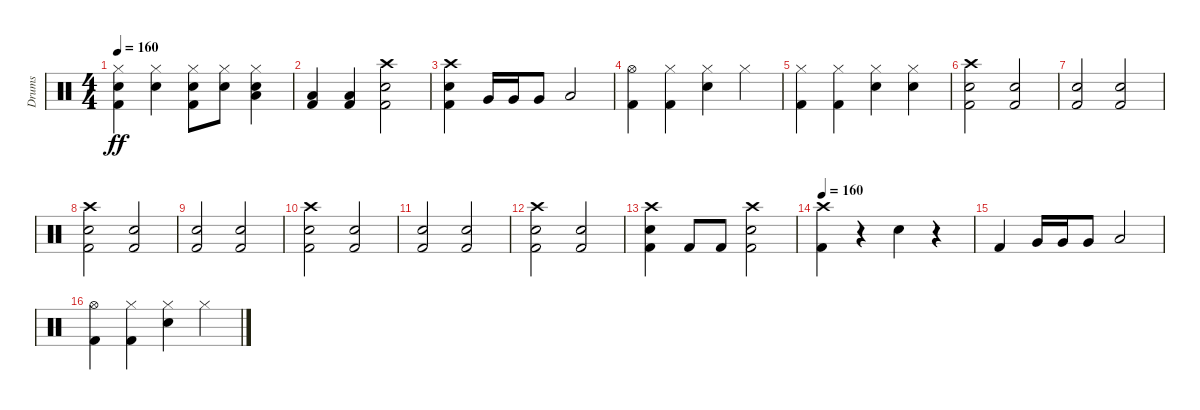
\track ("Drums" "Drums") {instrument percussion}
\staff {score}
\articulation defaults
\ts (4 4)
\tempo 160
\clef neutral
\ks c
("Hi-Hat (closed)" "Snare (hit) 2" "Kick (hit) 2").4{dy ff} ("Hi-Hat (closed)" "Snare (hit) 2").4 ("Hi-Hat (closed)" "Snare (hit) 2" "Kick (hit) 2").8 ("Hi-Hat (closed)" "Snare (hit) 2").8 ("Hi-Hat (closed)" "Snare (hit) 2" "Low Floor Tom (hit)").4 |
("Low Floor Tom (hit)" "Kick (hit) 2").4 ("Low Floor Tom (hit)" "Kick (hit) 2").4 ("Kick (hit) 2" "Crash high (hit)" "Snare (hit) 2").2 |
("Kick (hit) 2" "Crash high (hit)" "Snare (hit) 2").4 "Very Low Tom (hit)".16 "Very Low Tom (hit)".16 "Very Low Tom (hit)".8 "Low Floor Tom (hit)".2 |
("Hi-Hat (open)" "Kick (hit) 2").4 ("Hi-Hat (closed)" "Kick (hit) 2").4 ("Hi-Hat (closed)" "Snare (hit) 2").4 "Hi-Hat (closed)".4 |
("Hi-Hat (closed)" "Kick (hit) 2").4 ("Hi-Hat (closed)" "Kick (hit) 2").4 ("Hi-Hat (closed)" "Snare (hit) 2").4 ("Hi-Hat (closed)" "Snare (hit) 2").4 |
("Snare (hit) 2" "Crash high (hit)" "Kick (hit) 2").2 ("Snare (hit) 2" "Kick (hit) 2").2 |
("Kick (hit) 2" "Snare (hit) 2").2 ("Kick (hit) 2" "Snare (hit) 2").2 |
("Snare (hit) 2" "Crash high (hit)" "Kick (hit) 2").2 ("Snare (hit) 2" "Kick (hit) 2").2 |
("Kick (hit) 2" "Snare (hit) 2").2 ("Kick (hit) 2" "Snare (hit) 2").2 |
("Snare (hit) 2" "Crash high (hit)" "Kick (hit) 2").2 ("Snare (hit) 2" "Kick (hit) 2").2 |
("Kick (hit) 2" "Snare (hit) 2").2 ("Kick (hit) 2" "Snare (hit) 2").2 |
("Snare (hit) 2" "Crash high (hit)" "Kick (hit) 2").2 ("Snare (hit) 2" "Kick (hit) 2").2 |
("Snare (hit) 2" "Crash high (hit)" "Kick (hit) 2").4 "Kick (hit) 2".8 "Kick (hit) 2".8 ("Crash high (hit)" "Snare (hit) 2" "Kick (hit) 2").2 |
\tempo 160
("Crash high (hit)" "Kick (hit) 2").4 r.4 "Snare (hit) 2".4 r.4 |
"Kick (hit) 2".4 "Very Low Tom (hit)".16 "Very Low Tom (hit)".16 "Very Low Tom (hit)".8 "Low Floor Tom (hit)".2 |
("Hi-Hat (open)" "Kick (hit) 2").4 ("Hi-Hat (closed)" "Kick (hit) 2").4 ("Hi-Hat (closed)" "Snare (hit) 2").4 "Hi-Hat (closed)".4
